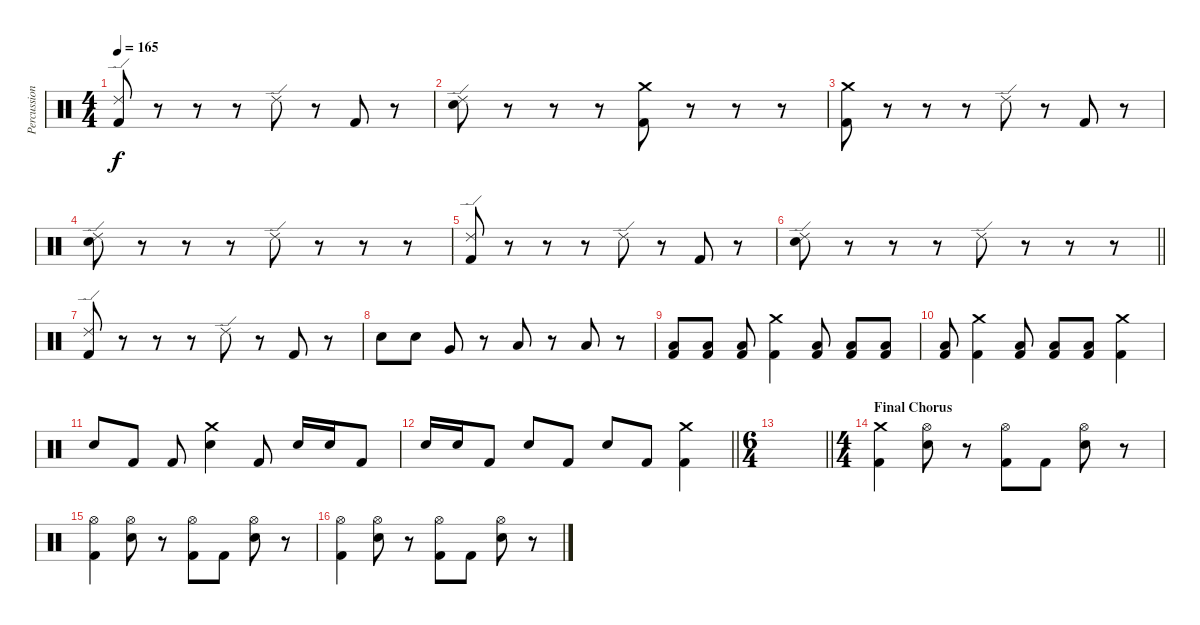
\track ("Percussion" "Percussion") {instrument percussion}
\staff {score}
\articulation defaults
\ts (4 4)
\tempo 165
\clef neutral
\ks c
("Ride (edge) 2" "Kick (hit) 2").8{dy f} r.8 r.8 r.8 "Ride (edge) 2".8 r.8 "Kick (hit) 2".8 r.8 |
("Ride (edge) 2" "Electric Snare (hit)").8 r.8 r.8 r.8 ("Crash medium (hit)" "Kick (hit) 2").8 r.8 r.8 r.8 |
("Crash medium (hit)" "Kick (hit) 2").8 r.8 r.8 r.8 "Ride (edge) 2".8 r.8 "Kick (hit) 2".8 r.8 |
("Ride (edge) 2" "Electric Snare (hit)").8 r.8 r.8 r.8 "Ride (edge) 2".8 r.8 r.8 r.8 |
("Ride (edge) 2" "Kick (hit) 2").8 r.8 r.8 r.8 "Ride (edge) 2".8 r.8 "Kick (hit) 2".8 r.8 |
\barLineRight lightlight
("Ride (edge) 2" "Electric Snare (hit)").8 r.8 r.8 r.8 "Ride (edge) 2".8 r.8 r.8 r.8 |
("Ride (edge) 2" "Kick (hit) 2").8 r.8 r.8 r.8 "Ride (edge) 2".8 r.8 "Kick (hit) 2".8 r.8 |
"Electric Snare (hit)".8 "Electric Snare (hit)".8 "Very Low Tom (hit)".8 r.8 "Low Tom (hit)".8 r.8 "Low Tom (hit)".8 r.8 |
("Low Floor Tom (hit)" "Kick (hit) 2").8 ("Low Floor Tom (hit)" "Kick (hit) 2").8 ("Low Floor Tom (hit)" "Kick (hit) 2").8 ("Kick (hit) 2" "Crash medium (hit)").4 ("Low Floor Tom (hit)" "Kick (hit) 2").8 ("Low Floor Tom (hit)" "Kick (hit) 2").8 ("Low Floor Tom (hit)" "Kick (hit) 2").8 |
("Low Floor Tom (hit)" "Kick (hit) 2").8 ("Kick (hit) 2" "Crash medium (hit)").4 ("Low Floor Tom (hit)" "Kick (hit) 2").8 ("Low Floor Tom (hit)" "Kick (hit) 2").8 ("Low Floor Tom (hit)" "Kick (hit) 2").8 ("Kick (hit) 2" "Crash medium (hit)").4 |
"Electric Snare (hit)".8 "Kick (hit) 2".8 "Kick (hit) 2".8 ("Electric Snare (hit)" "Crash medium (hit)").4 "Kick (hit) 2".8 "Electric Snare (hit)".16 "Electric Snare (hit)".16 "Kick (hit) 2".8 |
\barLineRight lightlight "Electric Snare (hit)".16 "Electric Snare (hit)".16 "Kick (hit) 2".8 "Electric Snare (hit)".8 "Kick (hit) 2".8 "Electric Snare (hit)".8 "Kick (hit) 2".8
("Kick (hit) 2" "Crash medium (hit)").4 |
\ts (6 4)
\barLineRight lightlight
|
\ts (4 4)
\section ("" "Final Chorus")
("Crash medium (hit)" "Kick (hit) 2").4 ("Hi-Hat (open)" "Electric Snare (hit)").8 r.8 ("Hi-Hat (open)" "Kick (hit) 2").8 "Kick (hit) 2".8 ("Hi-Hat (open)" "Electric Snare (hit)").8 r.8 |
("Hi-Hat (open)" "Kick (hit) 2").4 ("Hi-Hat (open)" "Electric Snare (hit)").8 r.8 ("Hi-Hat (open)" "Kick (hit) 2").8 "Kick (hit) 2".8 ("Hi-Hat (open)" "Electric Snare (hit)").8 r.8 |
("Hi-Hat (open)" "Kick (hit) 2").4 ("Hi-Hat (open)" "Electric Snare (hit)").8 r.8 ("Hi-Hat (open)" "Kick (hit) 2").8 "Kick (hit) 2".8 ("Hi-Hat (open)" "Electric Snare (hit)").8 r.8
